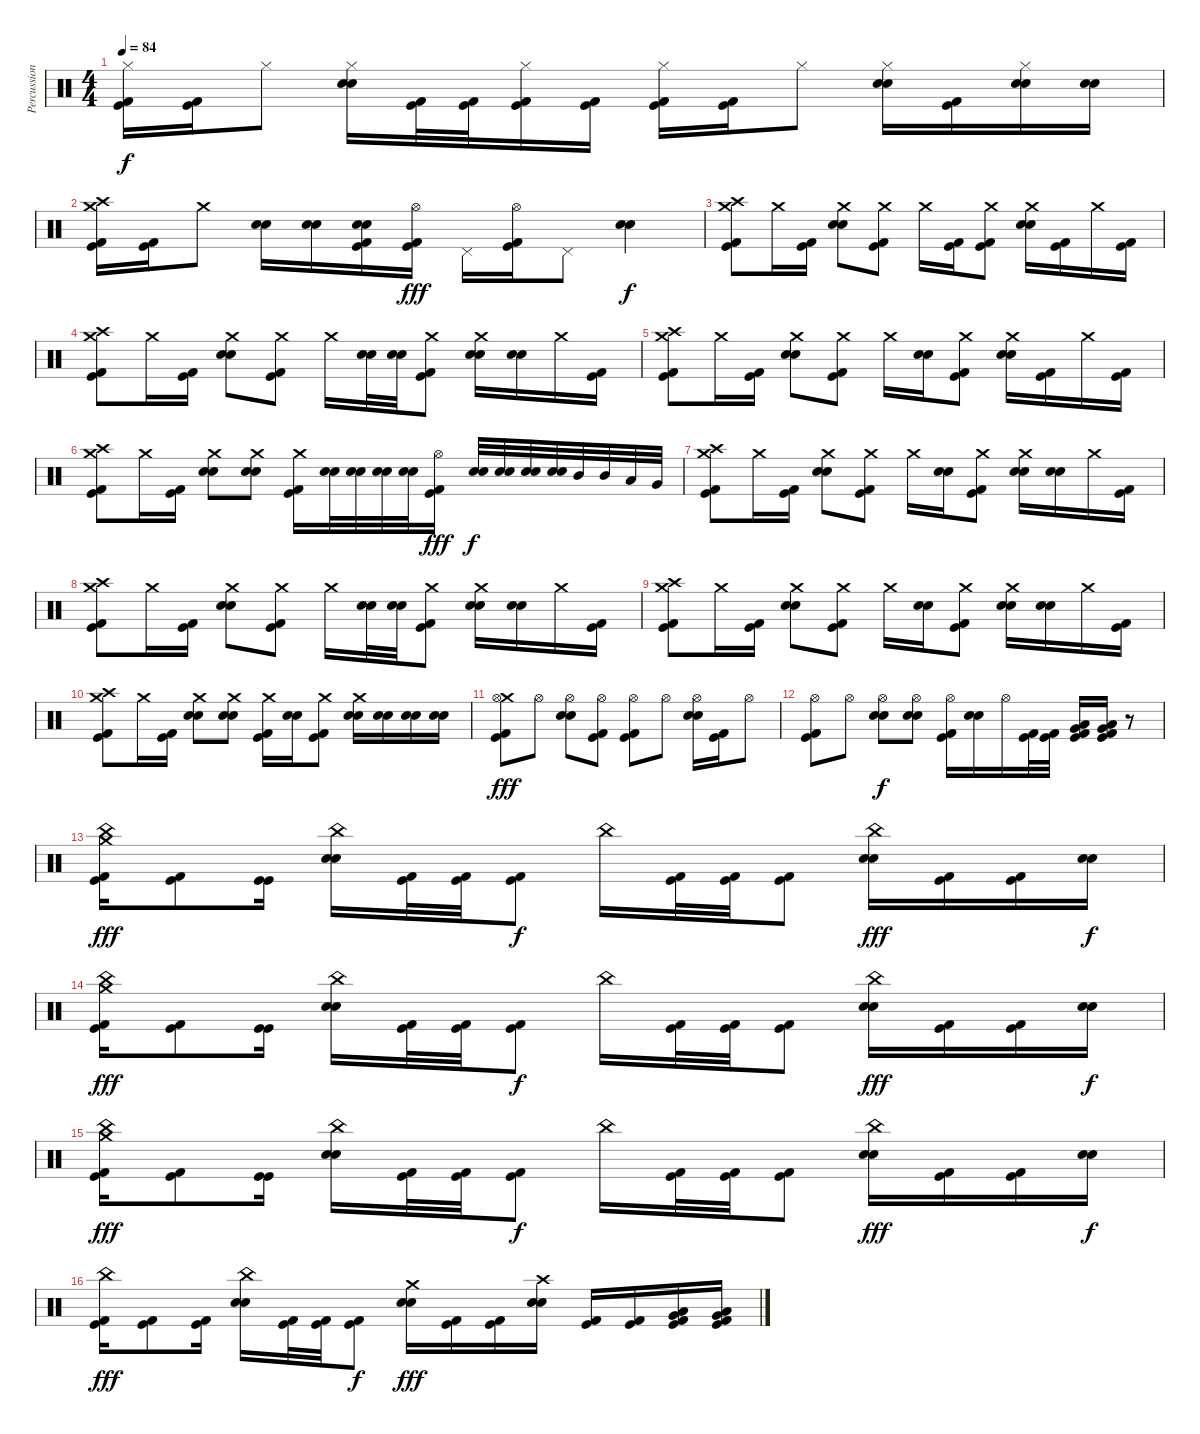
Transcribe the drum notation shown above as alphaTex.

\track ("Percussion" "Percussion") {instrument percussion}
\staff {score}
\articulation defaults
\ts (4 4)
\tempo 84
\clef neutral
\ks c
("Hi-Hat (closed)" "Kick (hit)" "Kick (hit) 2").16{dy f} ("Kick (hit)" "Kick (hit) 2").16 "Hi-Hat (closed)".8 ("Hi-Hat (closed)" "Electric Snare (hit)" "Snare (hit) 2").16 ("Kick (hit)" "Kick (hit) 2").32 ("Kick (hit)" "Kick (hit) 2").32 ("Hi-Hat (closed)" "Kick (hit)" "Kick (hit) 2").16 ("Kick (hit)" "Kick (hit) 2").16 ("Hi-Hat (closed)" "Kick (hit)" "Kick (hit) 2").16 ("Kick (hit)" "Kick (hit) 2").16 "Hi-Hat (closed)".8 ("Hi-Hat (closed)" "Electric Snare (hit)" "Snare (hit) 2").16 ("Kick (hit)" "Kick (hit) 2").16 ("Hi-Hat (closed)" "Electric Snare (hit)" "Snare (hit) 2").16 ("Electric Snare (hit)" "Snare (hit) 2").16 |
("Crash high (hit)" "Crash medium (hit)" "Kick (hit)" "Kick (hit) 2").16 ("Kick (hit)" "Kick (hit) 2").16 "Crash medium (hit)".8 ("Electric Snare (hit)" "Snare (hit) 2").16 ("Electric Snare (hit)" "Snare (hit) 2").16 ("Electric Snare (hit)" "Snare (hit) 2" "Kick (hit)" "Kick (hit) 2").16 ("Hi-Hat (open)" "Kick (hit)" "Kick (hit) 2").16{dy fff} "Pedal Hi-Hat (hit)".16 ("Hi-Hat (open)" "Kick (hit)" "Kick (hit) 2").16 "Pedal Hi-Hat (hit)".8 ("Electric Snare (hit)" "Snare (hit) 2").4{dy f} |
("Crash high (hit)" "Crash medium (hit)" "Kick (hit)" "Kick (hit) 2").8 "Crash medium (hit)".16 ("Kick (hit)" "Kick (hit) 2").16 ("Crash medium (hit)" "Electric Snare (hit)" "Snare (hit) 2").8 ("Crash medium (hit)" "Kick (hit)" "Kick (hit) 2").8 "Crash medium (hit)".16 ("Kick (hit)" "Kick (hit) 2").16 ("Crash medium (hit)" "Kick (hit)" "Kick (hit) 2").8 ("Crash medium (hit)" "Electric Snare (hit)" "Snare (hit) 2").16 ("Kick (hit)" "Kick (hit) 2").16 "Crash medium (hit)".16 ("Kick (hit)" "Kick (hit) 2").16 |
("Crash high (hit)" "Crash medium (hit)" "Kick (hit)" "Kick (hit) 2").8 "Crash medium (hit)".16 ("Kick (hit)" "Kick (hit) 2").16 ("Crash medium (hit)" "Electric Snare (hit)" "Snare (hit) 2").8 ("Crash medium (hit)" "Kick (hit)" "Kick (hit) 2").8 "Crash medium (hit)".16 ("Electric Snare (hit)" "Snare (hit) 2").32 ("Electric Snare (hit)" "Snare (hit) 2").32 ("Crash medium (hit)" "Kick (hit)" "Kick (hit) 2").8 ("Crash medium (hit)" "Electric Snare (hit)" "Snare (hit) 2").16 ("Electric Snare (hit)" "Snare (hit) 2").16 "Crash medium (hit)".16 ("Kick (hit)" "Kick (hit) 2").16 |
("Crash high (hit)" "Crash medium (hit)" "Kick (hit)" "Kick (hit) 2").8 "Crash medium (hit)".16 ("Kick (hit)" "Kick (hit) 2").16 ("Crash medium (hit)" "Electric Snare (hit)" "Snare (hit) 2").8 ("Crash medium (hit)" "Kick (hit)" "Kick (hit) 2").8 "Crash medium (hit)".16 ("Electric Snare (hit)" "Snare (hit) 2").16 ("Crash medium (hit)" "Kick (hit)" "Kick (hit) 2").8 ("Crash medium (hit)" "Electric Snare (hit)" "Snare (hit) 2").16 ("Kick (hit)" "Kick (hit) 2").16 "Crash medium (hit)".16 ("Kick (hit)" "Kick (hit) 2").16 |
("Crash high (hit)" "Crash medium (hit)" "Kick (hit)" "Kick (hit) 2").8 "Crash medium (hit)".16 ("Kick (hit)" "Kick (hit) 2").16 ("Crash medium (hit)" "Electric Snare (hit)" "Snare (hit) 2").8 ("Crash medium (hit)" "Electric Snare (hit)" "Snare (hit) 2").8 ("Crash medium (hit)" "Kick (hit)" "Kick (hit) 2").16 ("Electric Snare (hit)" "Snare (hit) 2").32 ("Electric Snare (hit)" "Snare (hit) 2").32 ("Electric Snare (hit)" "Snare (hit) 2").32 ("Electric Snare (hit)" "Snare (hit) 2").32 ("Hi-Hat (open)" "Kick (hit)" "Kick (hit) 2").16{dy fff} ("Electric Snare (hit)" "Snare (hit) 2").32{dy f} ("Electric Snare (hit)" "Snare (hit) 2").32 ("Electric Snare (hit)" "Snare (hit) 2").32 ("Electric Snare (hit)" "Snare (hit) 2").32 "Mid Tom (hit)".32 "Mid Tom (hit)".32 "Low Tom (hit)".32 "Very Low Tom (hit)".32 |
("Crash high (hit)" "Crash medium (hit)" "Kick (hit)" "Kick (hit) 2").8 "Crash medium (hit)".16 ("Kick (hit)" "Kick (hit) 2").16 ("Crash medium (hit)" "Electric Snare (hit)" "Snare (hit) 2").8 ("Crash medium (hit)" "Kick (hit)" "Kick (hit) 2").8 "Crash medium (hit)".16 ("Electric Snare (hit)" "Snare (hit) 2").16 ("Crash medium (hit)" "Kick (hit)" "Kick (hit) 2").8 ("Crash medium (hit)" "Electric Snare (hit)" "Snare (hit) 2").16 ("Electric Snare (hit)" "Snare (hit) 2").16 "Crash medium (hit)".16 ("Kick (hit)" "Kick (hit) 2").16 |
("Crash high (hit)" "Crash medium (hit)" "Kick (hit)" "Kick (hit) 2").8 "Crash medium (hit)".16 ("Kick (hit)" "Kick (hit) 2").16 ("Crash medium (hit)" "Electric Snare (hit)" "Snare (hit) 2").8 ("Crash medium (hit)" "Kick (hit)" "Kick (hit) 2").8 "Crash medium (hit)".16 ("Electric Snare (hit)" "Snare (hit) 2").32 ("Electric Snare (hit)" "Snare (hit) 2").32 ("Crash medium (hit)" "Kick (hit)" "Kick (hit) 2").8 ("Crash medium (hit)" "Electric Snare (hit)" "Snare (hit) 2").16 ("Electric Snare (hit)" "Snare (hit) 2").16 "Crash medium (hit)".16 ("Kick (hit)" "Kick (hit) 2").16 |
("Crash high (hit)" "Crash medium (hit)" "Kick (hit)" "Kick (hit) 2").8 "Crash medium (hit)".16 ("Kick (hit)" "Kick (hit) 2").16 ("Crash medium (hit)" "Electric Snare (hit)" "Snare (hit) 2").8 ("Crash medium (hit)" "Kick (hit)" "Kick (hit) 2").8 "Crash medium (hit)".16 ("Electric Snare (hit)" "Snare (hit) 2").16 ("Crash medium (hit)" "Kick (hit)" "Kick (hit) 2").8 ("Crash medium (hit)" "Electric Snare (hit)" "Snare (hit) 2").16 ("Electric Snare (hit)" "Snare (hit) 2").16 "Crash medium (hit)".16 ("Kick (hit)" "Kick (hit) 2").16 |
("Crash high (hit)" "Crash medium (hit)" "Kick (hit)" "Kick (hit) 2").8 "Crash medium (hit)".16 ("Kick (hit)" "Kick (hit) 2").16 ("Crash medium (hit)" "Electric Snare (hit)" "Snare (hit) 2").8 ("Crash medium (hit)" "Electric Snare (hit)" "Snare (hit) 2").8 ("Crash medium (hit)" "Kick (hit)" "Kick (hit) 2").16 ("Electric Snare (hit)" "Snare (hit) 2").16 ("Crash medium (hit)" "Kick (hit)" "Kick (hit) 2").8 ("Crash medium (hit)" "Electric Snare (hit)" "Snare (hit) 2").16 ("Electric Snare (hit)" "Snare (hit) 2").16 ("Electric Snare (hit)" "Snare (hit) 2").16 ("Electric Snare (hit)" "Snare (hit) 2").16 |
("Crash medium (hit)" "Hi-Hat (open)" "Kick (hit)" "Kick (hit) 2").8{dy fff} "Hi-Hat (open)".8 ("Hi-Hat (open)" "Electric Snare (hit)" "Snare (hit) 2").8 ("Hi-Hat (open)" "Kick (hit)" "Kick (hit) 2").8 ("Hi-Hat (open)" "Kick (hit)" "Kick (hit) 2").8 "Hi-Hat (open)".8 ("Hi-Hat (open)" "Electric Snare (hit)" "Snare (hit) 2").16 ("Kick (hit)" "Kick (hit) 2").16 "Hi-Hat (open)".8 |
("Hi-Hat (open)" "Kick (hit)" "Kick (hit) 2").8 "Hi-Hat (open)".8 ("Hi-Hat (open)" "Electric Snare (hit)" "Snare (hit) 2").8{dy f} ("Hi-Hat (open)" "Electric Snare (hit)" "Snare (hit) 2").8 ("Hi-Hat (open)" "Kick (hit)" "Kick (hit) 2").16 ("Electric Snare (hit)" "Snare (hit) 2").16 "Hi-Hat (open)".16 ("Kick (hit)" "Kick (hit) 2").32 ("Kick (hit)" "Kick (hit) 2").32 ("Low Tom (hit)" "Very Low Tom (hit)" "Kick (hit)" "Kick (hit) 2").16 ("Very Low Tom (hit)" "Low Floor Tom (hit)" "Kick (hit)" "Kick (hit) 2").16 r.8 |
("Crash medium (hit)" "China (hit)" "Kick (hit)" "Kick (hit) 2").16{dy fff} ("Kick (hit)" "Kick (hit) 2").8 ("Kick (hit)" "Kick (hit)").16 ("China (hit)" "Electric Snare (hit)" "Snare (hit) 2").16 ("Kick (hit)" "Kick (hit) 2").32 ("Kick (hit)" "Kick (hit) 2").32 ("Kick (hit)" "Kick (hit) 2").8{dy f} "China (hit)".16 ("Kick (hit)" "Kick (hit) 2").32 ("Kick (hit)" "Kick (hit) 2").32 ("Kick (hit)" "Kick (hit) 2").8 ("China (hit)" "Electric Snare (hit)" "Snare (hit) 2").16{dy fff} ("Kick (hit)" "Kick (hit) 2").16 ("Kick (hit)" "Kick (hit) 2").16 ("Electric Snare (hit)" "Snare (hit) 2").16{dy f} |
("Crash medium (hit)" "China (hit)" "Kick (hit)" "Kick (hit) 2").16{dy fff} ("Kick (hit)" "Kick (hit) 2").8 ("Kick (hit)" "Kick (hit)").16 ("China (hit)" "Electric Snare (hit)" "Snare (hit) 2").16 ("Kick (hit)" "Kick (hit) 2").32 ("Kick (hit)" "Kick (hit) 2").32 ("Kick (hit)" "Kick (hit) 2").8{dy f} "China (hit)".16 ("Kick (hit)" "Kick (hit) 2").32 ("Kick (hit)" "Kick (hit) 2").32 ("Kick (hit)" "Kick (hit) 2").8 ("China (hit)" "Electric Snare (hit)" "Snare (hit) 2").16{dy fff} ("Kick (hit)" "Kick (hit) 2").16 ("Kick (hit)" "Kick (hit) 2").16 ("Electric Snare (hit)" "Snare (hit) 2").16{dy f} |
("Crash medium (hit)" "China (hit)" "Kick (hit)" "Kick (hit) 2").16{dy fff} ("Kick (hit)" "Kick (hit) 2").8 ("Kick (hit)" "Kick (hit)").16 ("China (hit)" "Electric Snare (hit)" "Snare (hit) 2").16 ("Kick (hit)" "Kick (hit) 2").32 ("Kick (hit)" "Kick (hit) 2").32 ("Kick (hit)" "Kick (hit) 2").8{dy f} "China (hit)".16 ("Kick (hit)" "Kick (hit) 2").32 ("Kick (hit)" "Kick (hit) 2").32 ("Kick (hit)" "Kick (hit) 2").8 ("China (hit)" "Electric Snare (hit)" "Snare (hit) 2").16{dy fff} ("Kick (hit)" "Kick (hit) 2").16 ("Kick (hit)" "Kick (hit) 2").16 ("Electric Snare (hit)" "Snare (hit) 2").16{dy f} |
("China (hit)" "Kick (hit)" "Kick (hit) 2").16{dy fff} ("Kick (hit)" "Kick (hit) 2").8 ("Kick (hit)" "Kick (hit) 2").16 ("China (hit)" "Electric Snare (hit)" "Snare (hit) 2").16 ("Kick (hit)" "Kick (hit) 2").32 ("Kick (hit)" "Kick (hit) 2").32 ("Kick (hit)" "Kick (hit) 2").8{dy f} ("Crash medium (hit)" "Electric Snare (hit)" "Snare (hit) 2").16{dy fff} ("Kick (hit)" "Kick (hit) 2").16 ("Kick (hit)" "Kick (hit) 2").16 ("Crash high (hit)" "Electric Snare (hit)" "Snare (hit) 2").16 ("Kick (hit)" "Kick (hit) 2").16 ("Kick (hit)" "Kick (hit) 2").16 ("Very Low Tom (hit)" "Low Floor Tom (hit)" "Kick (hit)" "Kick (hit) 2").16 ("Very Low Tom (hit)" "Low Floor Tom (hit)" "Kick (hit)" "Kick (hit) 2").16
